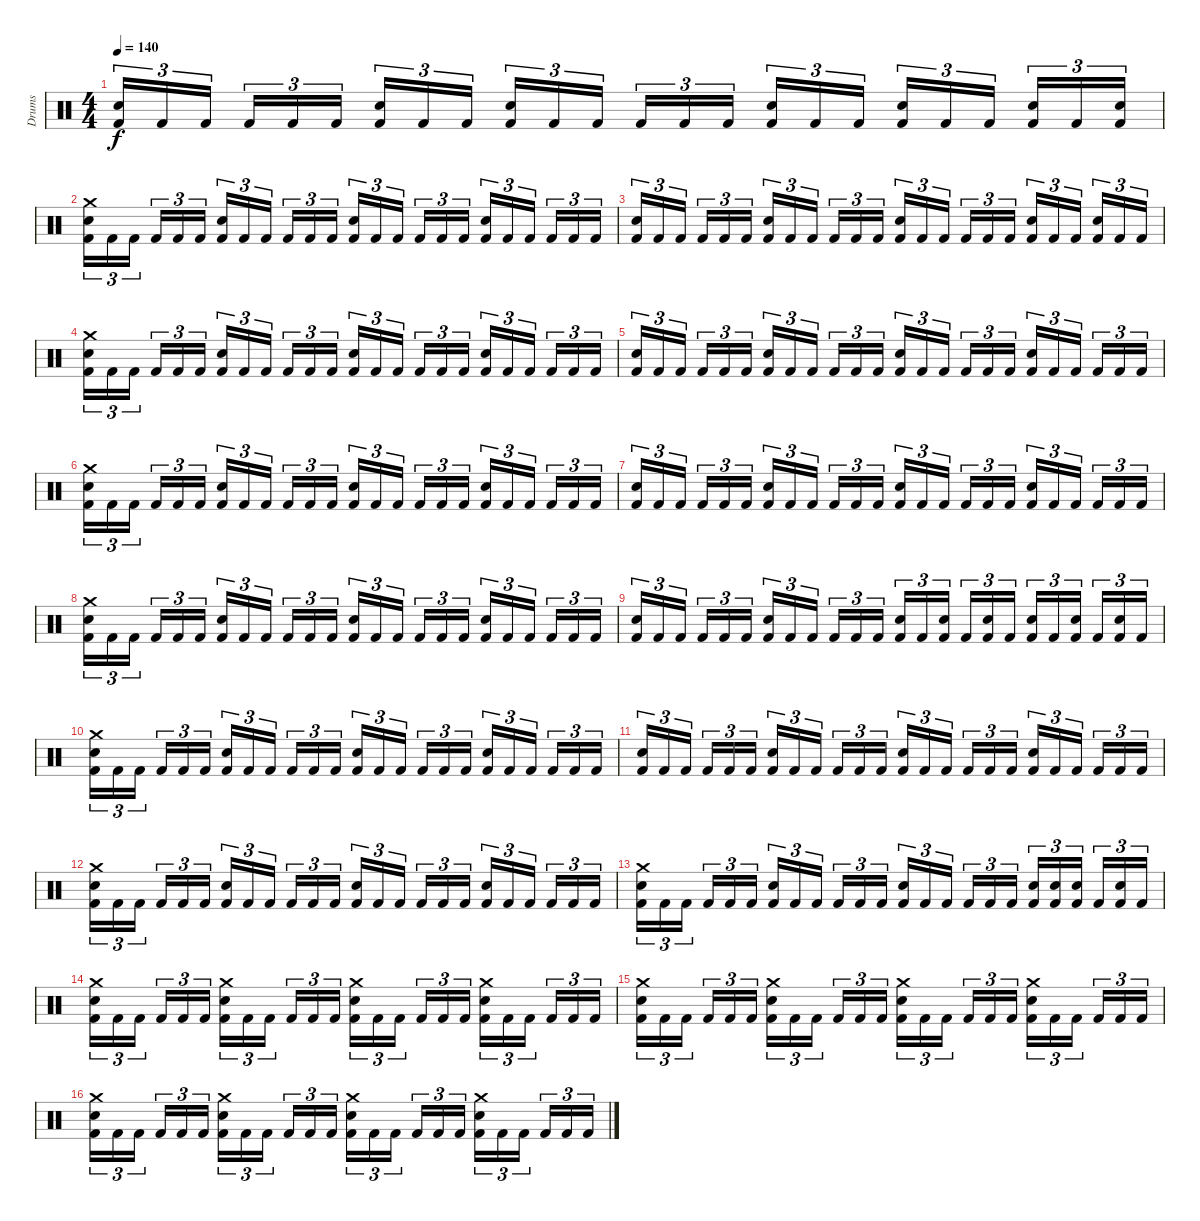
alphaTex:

\track ("Drums" "Drums") {instrument percussion}
\staff {score}
\articulation defaults
\ts (4 4)
\tempo 140
\clef neutral
\ks c
("Snare (hit) 2" "Kick (hit) 2").16{tu (3 2) dy f} "Kick (hit) 2".16{tu (3 2)} "Kick (hit) 2".16{tu (3 2)} "Kick (hit) 2".16{tu (3 2)} "Kick (hit) 2".16{tu (3 2)} "Kick (hit) 2".16{tu (3 2)} ("Snare (hit) 2" "Kick (hit) 2").16{tu (3 2)} "Kick (hit) 2".16{tu (3 2)} "Kick (hit) 2".16{tu (3 2)} ("Snare (hit) 2" "Kick (hit) 2").16{tu (3 2)} "Kick (hit) 2".16{tu (3 2)} "Kick (hit) 2".16{tu (3 2)} "Kick (hit) 2".16{tu (3 2)} "Kick (hit) 2".16{tu (3 2)} "Kick (hit) 2".16{tu (3 2)} ("Snare (hit) 2" "Kick (hit) 2").16{tu (3 2)} "Kick (hit) 2".16{tu (3 2)} "Kick (hit) 2".16{tu (3 2)} ("Snare (hit) 2" "Kick (hit) 2").16{tu (3 2)} "Kick (hit) 2".16{tu (3 2)} "Kick (hit) 2".16{tu (3 2)} ("Snare (hit) 2" "Kick (hit) 2").16{tu (3 2)} "Kick (hit) 2".16{tu (3 2)} ("Snare (hit) 2" "Kick (hit) 2").16{tu (3 2)} |
("Snare (hit) 2" "Crash medium (hit)" "Kick (hit) 2").16{tu (3 2)} "Kick (hit) 2".16{tu (3 2)} "Kick (hit) 2".16{tu (3 2)} "Kick (hit) 2".16{tu (3 2)} "Kick (hit) 2".16{tu (3 2)} "Kick (hit) 2".16{tu (3 2)} ("Snare (hit) 2" "Kick (hit) 2").16{tu (3 2)} "Kick (hit) 2".16{tu (3 2)} "Kick (hit) 2".16{tu (3 2)} "Kick (hit) 2".16{tu (3 2)} "Kick (hit) 2".16{tu (3 2)} "Kick (hit) 2".16{tu (3 2)} ("Snare (hit) 2" "Kick (hit) 2").16{tu (3 2)} "Kick (hit) 2".16{tu (3 2)} "Kick (hit) 2".16{tu (3 2)} "Kick (hit) 2".16{tu (3 2)} "Kick (hit) 2".16{tu (3 2)} "Kick (hit) 2".16{tu (3 2)} ("Snare (hit) 2" "Kick (hit) 2").16{tu (3 2)} "Kick (hit) 2".16{tu (3 2)} "Kick (hit) 2".16{tu (3 2)} "Kick (hit) 2".16{tu (3 2)} "Kick (hit) 2".16{tu (3 2)} "Kick (hit) 2".16{tu (3 2)} |
("Snare (hit) 2" "Kick (hit) 2").16{tu (3 2)} "Kick (hit) 2".16{tu (3 2)} "Kick (hit) 2".16{tu (3 2)} "Kick (hit) 2".16{tu (3 2)} "Kick (hit) 2".16{tu (3 2)} "Kick (hit) 2".16{tu (3 2)} ("Snare (hit) 2" "Kick (hit) 2").16{tu (3 2)} "Kick (hit) 2".16{tu (3 2)} "Kick (hit) 2".16{tu (3 2)} "Kick (hit) 2".16{tu (3 2)} "Kick (hit) 2".16{tu (3 2)} "Kick (hit) 2".16{tu (3 2)} ("Snare (hit) 2" "Kick (hit) 2").16{tu (3 2)} "Kick (hit) 2".16{tu (3 2)} "Kick (hit) 2".16{tu (3 2)} "Kick (hit) 2".16{tu (3 2)} "Kick (hit) 2".16{tu (3 2)} "Kick (hit) 2".16{tu (3 2)} ("Snare (hit) 2" "Kick (hit) 2").16{tu (3 2)} "Kick (hit) 2".16{tu (3 2)} "Kick (hit) 2".16{tu (3 2)} ("Snare (hit) 2" "Kick (hit) 2").16{tu (3 2)} "Kick (hit) 2".16{tu (3 2)} "Kick (hit) 2".16{tu (3 2)} |
("Snare (hit) 2" "Crash medium (hit)" "Kick (hit) 2").16{tu (3 2)} "Kick (hit) 2".16{tu (3 2)} "Kick (hit) 2".16{tu (3 2)} "Kick (hit) 2".16{tu (3 2)} "Kick (hit) 2".16{tu (3 2)} "Kick (hit) 2".16{tu (3 2)} ("Snare (hit) 2" "Kick (hit) 2").16{tu (3 2)} "Kick (hit) 2".16{tu (3 2)} "Kick (hit) 2".16{tu (3 2)} "Kick (hit) 2".16{tu (3 2)} "Kick (hit) 2".16{tu (3 2)} "Kick (hit) 2".16{tu (3 2)} ("Snare (hit) 2" "Kick (hit) 2").16{tu (3 2)} "Kick (hit) 2".16{tu (3 2)} "Kick (hit) 2".16{tu (3 2)} "Kick (hit) 2".16{tu (3 2)} "Kick (hit) 2".16{tu (3 2)} "Kick (hit) 2".16{tu (3 2)} ("Snare (hit) 2" "Kick (hit) 2").16{tu (3 2)} "Kick (hit) 2".16{tu (3 2)} "Kick (hit) 2".16{tu (3 2)} "Kick (hit) 2".16{tu (3 2)} "Kick (hit) 2".16{tu (3 2)} "Kick (hit) 2".16{tu (3 2)} |
("Snare (hit) 2" "Kick (hit) 2").16{tu (3 2)} "Kick (hit) 2".16{tu (3 2)} "Kick (hit) 2".16{tu (3 2)} "Kick (hit) 2".16{tu (3 2)} "Kick (hit) 2".16{tu (3 2)} "Kick (hit) 2".16{tu (3 2)} ("Snare (hit) 2" "Kick (hit) 2").16{tu (3 2)} "Kick (hit) 2".16{tu (3 2)} "Kick (hit) 2".16{tu (3 2)} "Kick (hit) 2".16{tu (3 2)} "Kick (hit) 2".16{tu (3 2)} "Kick (hit) 2".16{tu (3 2)} ("Snare (hit) 2" "Kick (hit) 2").16{tu (3 2)} "Kick (hit) 2".16{tu (3 2)} "Kick (hit) 2".16{tu (3 2)} "Kick (hit) 2".16{tu (3 2)} "Kick (hit) 2".16{tu (3 2)} "Kick (hit) 2".16{tu (3 2)} ("Snare (hit) 2" "Kick (hit) 2").16{tu (3 2)} "Kick (hit) 2".16{tu (3 2)} "Kick (hit) 2".16{tu (3 2)} "Kick (hit) 2".16{tu (3 2)} "Kick (hit) 2".16{tu (3 2)} "Kick (hit) 2".16{tu (3 2)} |
("Snare (hit) 2" "Crash medium (hit)" "Kick (hit) 2").16{tu (3 2)} "Kick (hit) 2".16{tu (3 2)} "Kick (hit) 2".16{tu (3 2)} "Kick (hit) 2".16{tu (3 2)} "Kick (hit) 2".16{tu (3 2)} "Kick (hit) 2".16{tu (3 2)} ("Snare (hit) 2" "Kick (hit) 2").16{tu (3 2)} "Kick (hit) 2".16{tu (3 2)} "Kick (hit) 2".16{tu (3 2)} "Kick (hit) 2".16{tu (3 2)} "Kick (hit) 2".16{tu (3 2)} "Kick (hit) 2".16{tu (3 2)} ("Snare (hit) 2" "Kick (hit) 2").16{tu (3 2)} "Kick (hit) 2".16{tu (3 2)} "Kick (hit) 2".16{tu (3 2)} "Kick (hit) 2".16{tu (3 2)} "Kick (hit) 2".16{tu (3 2)} "Kick (hit) 2".16{tu (3 2)} ("Snare (hit) 2" "Kick (hit) 2").16{tu (3 2)} "Kick (hit) 2".16{tu (3 2)} "Kick (hit) 2".16{tu (3 2)} "Kick (hit) 2".16{tu (3 2)} "Kick (hit) 2".16{tu (3 2)} "Kick (hit) 2".16{tu (3 2)} |
("Snare (hit) 2" "Kick (hit) 2").16{tu (3 2)} "Kick (hit) 2".16{tu (3 2)} "Kick (hit) 2".16{tu (3 2)} "Kick (hit) 2".16{tu (3 2)} "Kick (hit) 2".16{tu (3 2)} "Kick (hit) 2".16{tu (3 2)} ("Snare (hit) 2" "Kick (hit) 2").16{tu (3 2)} "Kick (hit) 2".16{tu (3 2)} "Kick (hit) 2".16{tu (3 2)} "Kick (hit) 2".16{tu (3 2)} "Kick (hit) 2".16{tu (3 2)} "Kick (hit) 2".16{tu (3 2)} ("Snare (hit) 2" "Kick (hit) 2").16{tu (3 2)} "Kick (hit) 2".16{tu (3 2)} "Kick (hit) 2".16{tu (3 2)} "Kick (hit) 2".16{tu (3 2)} "Kick (hit) 2".16{tu (3 2)} "Kick (hit) 2".16{tu (3 2)} ("Snare (hit) 2" "Kick (hit) 2").16{tu (3 2)} "Kick (hit) 2".16{tu (3 2)} "Kick (hit) 2".16{tu (3 2)} "Kick (hit) 2".16{tu (3 2)} "Kick (hit) 2".16{tu (3 2)} "Kick (hit) 2".16{tu (3 2)} |
("Snare (hit) 2" "Crash medium (hit)" "Kick (hit) 2").16{tu (3 2)} "Kick (hit) 2".16{tu (3 2)} "Kick (hit) 2".16{tu (3 2)} "Kick (hit) 2".16{tu (3 2)} "Kick (hit) 2".16{tu (3 2)} "Kick (hit) 2".16{tu (3 2)} ("Snare (hit) 2" "Kick (hit) 2").16{tu (3 2)} "Kick (hit) 2".16{tu (3 2)} "Kick (hit) 2".16{tu (3 2)} "Kick (hit) 2".16{tu (3 2)} "Kick (hit) 2".16{tu (3 2)} "Kick (hit) 2".16{tu (3 2)} ("Snare (hit) 2" "Kick (hit) 2").16{tu (3 2)} "Kick (hit) 2".16{tu (3 2)} "Kick (hit) 2".16{tu (3 2)} "Kick (hit) 2".16{tu (3 2)} "Kick (hit) 2".16{tu (3 2)} "Kick (hit) 2".16{tu (3 2)} ("Snare (hit) 2" "Kick (hit) 2").16{tu (3 2)} "Kick (hit) 2".16{tu (3 2)} "Kick (hit) 2".16{tu (3 2)} "Kick (hit) 2".16{tu (3 2)} "Kick (hit) 2".16{tu (3 2)} "Kick (hit) 2".16{tu (3 2)} |
("Snare (hit) 2" "Kick (hit) 2").16{tu (3 2)} "Kick (hit) 2".16{tu (3 2)} "Kick (hit) 2".16{tu (3 2)} "Kick (hit) 2".16{tu (3 2)} "Kick (hit) 2".16{tu (3 2)} "Kick (hit) 2".16{tu (3 2)} ("Snare (hit) 2" "Kick (hit) 2").16{tu (3 2)} "Kick (hit) 2".16{tu (3 2)} "Kick (hit) 2".16{tu (3 2)} "Kick (hit) 2".16{tu (3 2)} "Kick (hit) 2".16{tu (3 2)} "Kick (hit) 2".16{tu (3 2)} ("Snare (hit) 2" "Kick (hit) 2").16{tu (3 2)} "Kick (hit) 2".16{tu (3 2)} ("Snare (hit) 2" "Kick (hit) 2").16{tu (3 2)} "Kick (hit) 2".16{tu (3 2)} ("Snare (hit) 2" "Kick (hit) 2").16{tu (3 2)} "Kick (hit) 2".16{tu (3 2)} ("Snare (hit) 2" "Kick (hit) 2").16{tu (3 2)} "Kick (hit) 2".16{tu (3 2)} ("Snare (hit) 2" "Kick (hit) 2").16{tu (3 2)} "Kick (hit) 2".16{tu (3 2)} ("Snare (hit) 2" "Kick (hit) 2").16{tu (3 2)} "Kick (hit) 2".16{tu (3 2)} |
("Snare (hit) 2" "Crash medium (hit)" "Kick (hit) 2").16{tu (3 2)} "Kick (hit) 2".16{tu (3 2)} "Kick (hit) 2".16{tu (3 2)} "Kick (hit) 2".16{tu (3 2)} "Kick (hit) 2".16{tu (3 2)} "Kick (hit) 2".16{tu (3 2)} ("Snare (hit) 2" "Kick (hit) 2").16{tu (3 2)} "Kick (hit) 2".16{tu (3 2)} "Kick (hit) 2".16{tu (3 2)} "Kick (hit) 2".16{tu (3 2)} "Kick (hit) 2".16{tu (3 2)} "Kick (hit) 2".16{tu (3 2)} ("Snare (hit) 2" "Kick (hit) 2").16{tu (3 2)} "Kick (hit) 2".16{tu (3 2)} "Kick (hit) 2".16{tu (3 2)} "Kick (hit) 2".16{tu (3 2)} "Kick (hit) 2".16{tu (3 2)} "Kick (hit) 2".16{tu (3 2)} ("Snare (hit) 2" "Kick (hit) 2").16{tu (3 2)} "Kick (hit) 2".16{tu (3 2)} "Kick (hit) 2".16{tu (3 2)} "Kick (hit) 2".16{tu (3 2)} "Kick (hit) 2".16{tu (3 2)} "Kick (hit) 2".16{tu (3 2)} |
("Snare (hit) 2" "Kick (hit) 2").16{tu (3 2)} "Kick (hit) 2".16{tu (3 2)} "Kick (hit) 2".16{tu (3 2)} "Kick (hit) 2".16{tu (3 2)} "Kick (hit) 2".16{tu (3 2)} "Kick (hit) 2".16{tu (3 2)} ("Snare (hit) 2" "Kick (hit) 2").16{tu (3 2)} "Kick (hit) 2".16{tu (3 2)} "Kick (hit) 2".16{tu (3 2)} "Kick (hit) 2".16{tu (3 2)} "Kick (hit) 2".16{tu (3 2)} "Kick (hit) 2".16{tu (3 2)} ("Snare (hit) 2" "Kick (hit) 2").16{tu (3 2)} "Kick (hit) 2".16{tu (3 2)} "Kick (hit) 2".16{tu (3 2)} "Kick (hit) 2".16{tu (3 2)} "Kick (hit) 2".16{tu (3 2)} "Kick (hit) 2".16{tu (3 2)} ("Snare (hit) 2" "Kick (hit) 2").16{tu (3 2)} "Kick (hit) 2".16{tu (3 2)} "Kick (hit) 2".16{tu (3 2)} "Kick (hit) 2".16{tu (3 2)} "Kick (hit) 2".16{tu (3 2)} "Kick (hit) 2".16{tu (3 2)} |
("Snare (hit) 2" "Crash medium (hit)" "Kick (hit) 2").16{tu (3 2)} "Kick (hit) 2".16{tu (3 2)} "Kick (hit) 2".16{tu (3 2)} "Kick (hit) 2".16{tu (3 2)} "Kick (hit) 2".16{tu (3 2)} "Kick (hit) 2".16{tu (3 2)} ("Snare (hit) 2" "Kick (hit) 2").16{tu (3 2)} "Kick (hit) 2".16{tu (3 2)} "Kick (hit) 2".16{tu (3 2)} "Kick (hit) 2".16{tu (3 2)} "Kick (hit) 2".16{tu (3 2)} "Kick (hit) 2".16{tu (3 2)} ("Snare (hit) 2" "Kick (hit) 2").16{tu (3 2)} "Kick (hit) 2".16{tu (3 2)} "Kick (hit) 2".16{tu (3 2)} "Kick (hit) 2".16{tu (3 2)} "Kick (hit) 2".16{tu (3 2)} "Kick (hit) 2".16{tu (3 2)} ("Snare (hit) 2" "Kick (hit) 2").16{tu (3 2)} "Kick (hit) 2".16{tu (3 2)} "Kick (hit) 2".16{tu (3 2)} "Kick (hit) 2".16{tu (3 2)} "Kick (hit) 2".16{tu (3 2)} "Kick (hit) 2".16{tu (3 2)} |
("Snare (hit) 2" "Crash medium (hit)" "Kick (hit) 2").16{tu (3 2)} "Kick (hit) 2".16{tu (3 2)} "Kick (hit) 2".16{tu (3 2)} "Kick (hit) 2".16{tu (3 2)} "Kick (hit) 2".16{tu (3 2)} "Kick (hit) 2".16{tu (3 2)} ("Snare (hit) 2" "Kick (hit) 2").16{tu (3 2)} "Kick (hit) 2".16{tu (3 2)} "Kick (hit) 2".16{tu (3 2)} "Kick (hit) 2".16{tu (3 2)} "Kick (hit) 2".16{tu (3 2)} "Kick (hit) 2".16{tu (3 2)} ("Snare (hit) 2" "Kick (hit) 2").16{tu (3 2)} "Kick (hit) 2".16{tu (3 2)} "Kick (hit) 2".16{tu (3 2)} "Kick (hit) 2".16{tu (3 2)} "Kick (hit) 2".16{tu (3 2)} "Kick (hit) 2".16{tu (3 2)} ("Snare (hit) 2" "Kick (hit) 2").16{tu (3 2)} ("Snare (hit) 2" "Kick (hit) 2").16{tu (3 2)} ("Snare (hit) 2" "Kick (hit) 2").16{tu (3 2)} "Kick (hit) 2".16{tu (3 2)} ("Snare (hit) 2" "Kick (hit) 2").16{tu (3 2)} "Kick (hit) 2".16{tu (3 2)} |
("Snare (hit) 2" "Crash medium (hit)" "Kick (hit) 2").16{tu (3 2)} "Kick (hit) 2".16{tu (3 2)} "Kick (hit) 2".16{tu (3 2)} "Kick (hit) 2".16{tu (3 2)} "Kick (hit) 2".16{tu (3 2)} "Kick (hit) 2".16{tu (3 2)} ("Snare (hit) 2" "Crash medium (hit)" "Kick (hit) 2").16{tu (3 2)} "Kick (hit) 2".16{tu (3 2)} "Kick (hit) 2".16{tu (3 2)} "Kick (hit) 2".16{tu (3 2)} "Kick (hit) 2".16{tu (3 2)} "Kick (hit) 2".16{tu (3 2)} ("Snare (hit) 2" "Crash medium (hit)" "Kick (hit) 2").16{tu (3 2)} "Kick (hit) 2".16{tu (3 2)} "Kick (hit) 2".16{tu (3 2)} "Kick (hit) 2".16{tu (3 2)} "Kick (hit) 2".16{tu (3 2)} "Kick (hit) 2".16{tu (3 2)} ("Snare (hit) 2" "Crash medium (hit)" "Kick (hit) 2").16{tu (3 2)} "Kick (hit) 2".16{tu (3 2)} "Kick (hit) 2".16{tu (3 2)} "Kick (hit) 2".16{tu (3 2)} "Kick (hit) 2".16{tu (3 2)} "Kick (hit) 2".16{tu (3 2)} |
("Snare (hit) 2" "Crash medium (hit)" "Kick (hit) 2").16{tu (3 2)} "Kick (hit) 2".16{tu (3 2)} "Kick (hit) 2".16{tu (3 2)} "Kick (hit) 2".16{tu (3 2)} "Kick (hit) 2".16{tu (3 2)} "Kick (hit) 2".16{tu (3 2)} ("Snare (hit) 2" "Crash medium (hit)" "Kick (hit) 2").16{tu (3 2)} "Kick (hit) 2".16{tu (3 2)} "Kick (hit) 2".16{tu (3 2)} "Kick (hit) 2".16{tu (3 2)} "Kick (hit) 2".16{tu (3 2)} "Kick (hit) 2".16{tu (3 2)} ("Snare (hit) 2" "Crash medium (hit)" "Kick (hit) 2").16{tu (3 2)} "Kick (hit) 2".16{tu (3 2)} "Kick (hit) 2".16{tu (3 2)} "Kick (hit) 2".16{tu (3 2)} "Kick (hit) 2".16{tu (3 2)} "Kick (hit) 2".16{tu (3 2)} ("Snare (hit) 2" "Crash medium (hit)" "Kick (hit) 2").16{tu (3 2)} "Kick (hit) 2".16{tu (3 2)} "Kick (hit) 2".16{tu (3 2)} "Kick (hit) 2".16{tu (3 2)} "Kick (hit) 2".16{tu (3 2)} "Kick (hit) 2".16{tu (3 2)} |
("Snare (hit) 2" "Crash medium (hit)" "Kick (hit) 2").16{tu (3 2)} "Kick (hit) 2".16{tu (3 2)} "Kick (hit) 2".16{tu (3 2)} "Kick (hit) 2".16{tu (3 2)} "Kick (hit) 2".16{tu (3 2)} "Kick (hit) 2".16{tu (3 2)} ("Snare (hit) 2" "Crash medium (hit)" "Kick (hit) 2").16{tu (3 2)} "Kick (hit) 2".16{tu (3 2)} "Kick (hit) 2".16{tu (3 2)} "Kick (hit) 2".16{tu (3 2)} "Kick (hit) 2".16{tu (3 2)} "Kick (hit) 2".16{tu (3 2)} ("Snare (hit) 2" "Crash medium (hit)" "Kick (hit) 2").16{tu (3 2)} "Kick (hit) 2".16{tu (3 2)} "Kick (hit) 2".16{tu (3 2)} "Kick (hit) 2".16{tu (3 2)} "Kick (hit) 2".16{tu (3 2)} "Kick (hit) 2".16{tu (3 2)} ("Snare (hit) 2" "Crash medium (hit)" "Kick (hit) 2").16{tu (3 2)} "Kick (hit) 2".16{tu (3 2)} "Kick (hit) 2".16{tu (3 2)} "Kick (hit) 2".16{tu (3 2)} "Kick (hit) 2".16{tu (3 2)} "Kick (hit) 2".16{tu (3 2)}
